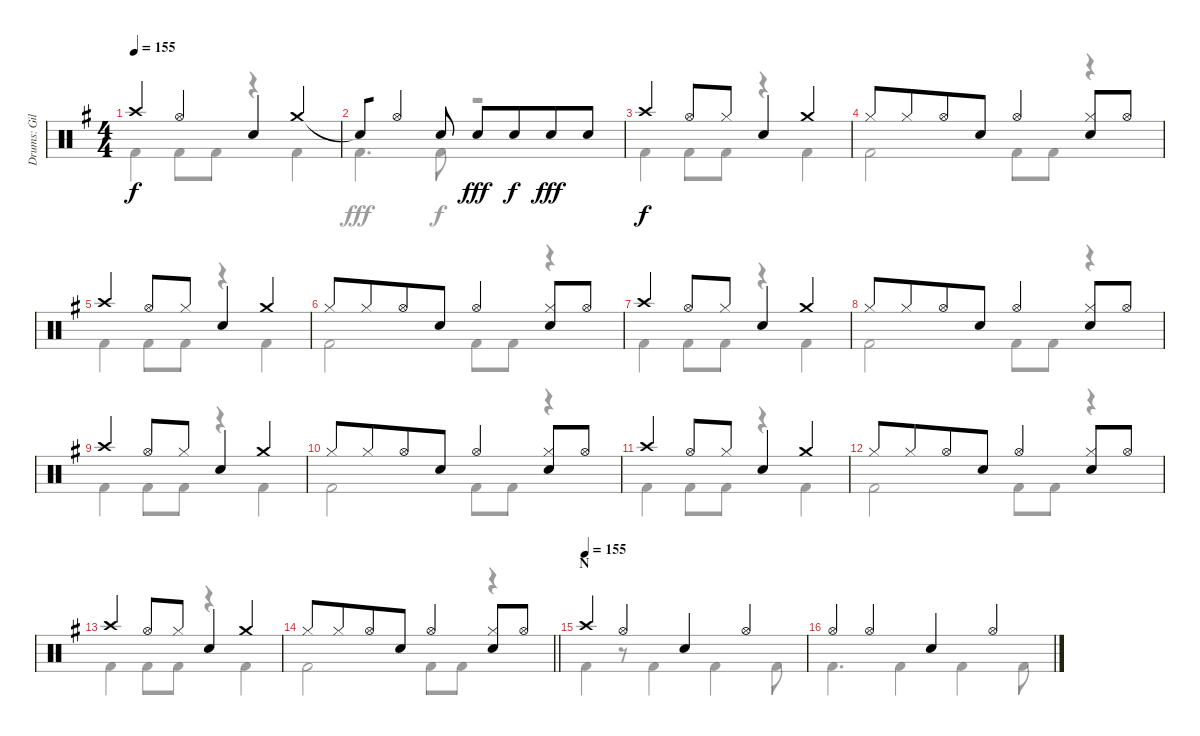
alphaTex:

\track ("Drums: Gil" "Drums: Gil") {instrument percussion}
\staff {score}
\articulation defaults
\voice
\ts (4 4)
\tempo 155
\clef neutral
\ks g "Crash high (hit)".4{dy f beam merge} "Hi-Hat (open)".4 "Snare (hit) 2".4{beam merge} "Crash medium (hit)".4
|
"Snare (hit)"{t}.8{beam merge} "Hi-Hat (open)".4 "Snare (hit) 2".8 "Snare (hit) 2".8{dy fff beam merge} "Snare (hit) 2".8{dy f beam merge} "Snare (hit) 2".8{dy fff} "Snare (hit) 2".8 |
"Crash high (hit)".4{dy f beam merge} "Hi-Hat (open)".8 "Hi-Hat (closed)".8 "Snare (hit) 2".4{beam merge} "Crash medium (hit)".4 |
"Hi-Hat (closed)".8 "Hi-Hat (closed)".8{beam merge} "Hi-Hat (open)".8 "Snare (hit) 2".8 "Hi-Hat (open)".4{beam merge} ("Hi-Hat (closed)" "Snare (hit) 2").8 "Hi-Hat (open)".8 |
"Crash high (hit)".4{beam merge} "Hi-Hat (open)".8 "Hi-Hat (closed)".8 "Snare (hit) 2".4{beam merge} "Crash medium (hit)".4 |
"Hi-Hat (closed)".8 "Hi-Hat (closed)".8{beam merge} "Hi-Hat (open)".8 "Snare (hit) 2".8 "Hi-Hat (open)".4{beam merge} ("Hi-Hat (closed)" "Snare (hit) 2").8 "Hi-Hat (open)".8 |
"Crash high (hit)".4{beam merge} "Hi-Hat (open)".8 "Hi-Hat (closed)".8 "Snare (hit) 2".4{beam merge} "Crash medium (hit)".4 |
"Hi-Hat (closed)".8 "Hi-Hat (closed)".8{beam merge} "Hi-Hat (open)".8 "Snare (hit) 2".8 "Hi-Hat (open)".4{beam merge} ("Hi-Hat (closed)" "Snare (hit) 2").8 "Hi-Hat (open)".8 |
"Crash high (hit)".4{beam merge} "Hi-Hat (open)".8 "Hi-Hat (closed)".8 "Snare (hit) 2".4{beam merge} "Crash medium (hit)".4 |
"Hi-Hat (closed)".8 "Hi-Hat (closed)".8{beam merge} "Hi-Hat (open)".8 "Snare (hit) 2".8 "Hi-Hat (open)".4{beam merge} ("Hi-Hat (closed)" "Snare (hit) 2").8 "Hi-Hat (open)".8 |
"Crash high (hit)".4{beam merge} "Hi-Hat (open)".8 "Hi-Hat (closed)".8 "Snare (hit) 2".4{beam merge} "Crash medium (hit)".4 |
"Hi-Hat (closed)".8 "Hi-Hat (closed)".8{beam merge} "Hi-Hat (open)".8 "Snare (hit) 2".8 "Hi-Hat (open)".4{beam merge} ("Hi-Hat (closed)" "Snare (hit) 2").8 "Hi-Hat (open)".8 |
"Crash high (hit)".4{beam merge} "Hi-Hat (open)".8 "Hi-Hat (closed)".8 "Snare (hit) 2".4{beam merge} "Crash medium (hit)".4 |
\barLineRight lightlight "Hi-Hat (closed)".8 "Hi-Hat (closed)".8{beam merge} "Hi-Hat (open)".8 "Snare (hit) 2".8 "Hi-Hat (open)".4{beam merge}
("Hi-Hat (closed)" "Snare (hit) 2").8 "Hi-Hat (open)".8 |
\section ("" "N")
\tempo (155)
"Crash high (hit)".4 "Hi-Hat (open)".4{beam merge} "Snare (hit) 2".4 "Hi-Hat (open)".4 |
"Hi-Hat (open)".4 "Hi-Hat (open)".4{beam merge} "Snare (hit) 2".4 "Hi-Hat (open)".4
\voice
\clef neutral
\ottava regular
\simile none
\ks g "Kick (hit) 2".4{dy f} "Kick (hit) 2".8 "Kick (hit) 2".8
r.4 "Kick (hit) 2".4 |
"Kick (hit) 2".4{d dy fff} "Kick (hit) 2".8{dy f} r.2 |
"Kick (hit) 2".4 "Kick (hit) 2".8 "Kick (hit) 2".8 r.4 "Kick (hit) 2".4 |
"Kick (hit) 2".2 "Kick (hit) 2".8 "Kick (hit) 2".8 r.4 |
"Kick (hit) 2".4 "Kick (hit) 2".8 "Kick (hit) 2".8 r.4 "Kick (hit) 2".4 |
"Kick (hit) 2".2 "Kick (hit) 2".8 "Kick (hit) 2".8 r.4 |
"Kick (hit) 2".4 "Kick (hit) 2".8 "Kick (hit) 2".8 r.4 "Kick (hit) 2".4 |
"Kick (hit) 2".2 "Kick (hit) 2".8 "Kick (hit) 2".8 r.4 |
"Kick (hit) 2".4 "Kick (hit) 2".8 "Kick (hit) 2".8 r.4 "Kick (hit) 2".4 |
"Kick (hit) 2".2 "Kick (hit) 2".8 "Kick (hit) 2".8 r.4 |
"Kick (hit) 2".4 "Kick (hit) 2".8 "Kick (hit) 2".8 r.4 "Kick (hit) 2".4 |
"Kick (hit) 2".2 "Kick (hit) 2".8 "Kick (hit) 2".8 r.4 |
"Kick (hit) 2".4 "Kick (hit) 2".8 "Kick (hit) 2".8 r.4 "Kick (hit) 2".4 |
\barLineRight lightlight "Kick (hit) 2".2 "Kick (hit) 2".8 "Kick (hit) 2".8
r.4 |
"Kick (hit) 2".4 r.8 "Kick (hit) 2".4 "Kick (hit) 2".4 "Kick (hit) 2".8 |
"Kick (hit) 2".4{d} "Kick (hit) 2".4 "Kick (hit) 2".4 "Kick (hit) 2".8
